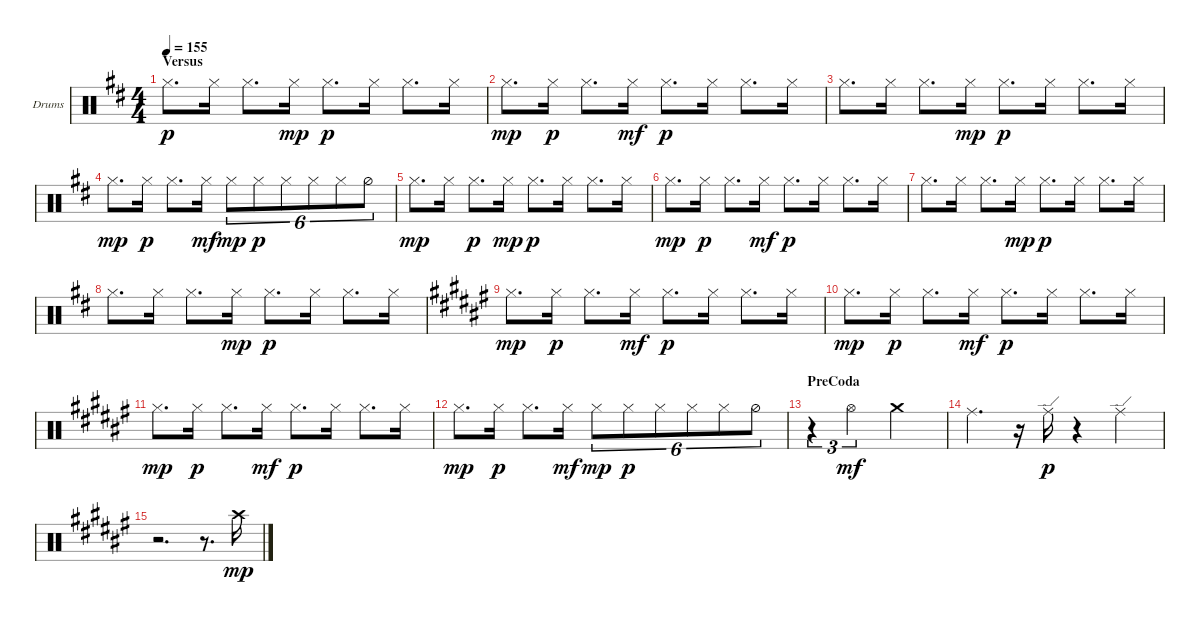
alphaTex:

\bracketExtendMode groupsimilarinstruments
\firstSystemTrackNameOrientation horizontal
\otherSystemsTrackNameOrientation horizontal
\track ("Perc" "Drums") {instrument percussion}
\staff {score}
\articulation defaults
\ts (4 4)
\section ("" "Versus")
\tempo 155
\clef neutral
\ks d "Hi-Hat (closed)".8{d dy p} "Hi-Hat (closed)".16 "Hi-Hat (closed)".8{d} "Hi-Hat (closed)".16{dy mp} "Hi-Hat (closed)".8{d dy p} "Hi-Hat (closed)".16 "Hi-Hat (closed)".8{d} "Hi-Hat (closed)".16
|
"Hi-Hat (closed)".8{d dy mp} "Hi-Hat (closed)".16{dy p} "Hi-Hat (closed)".8{d} "Hi-Hat (closed)".16{dy mf} "Hi-Hat (closed)".8{d dy p} "Hi-Hat (closed)".16 "Hi-Hat (closed)".8{d} "Hi-Hat (closed)".16 |
"Hi-Hat (closed)".8{d} "Hi-Hat (closed)".16 "Hi-Hat (closed)".8{d} "Hi-Hat (closed)".16{dy mp} "Hi-Hat (closed)".8{d dy p} "Hi-Hat (closed)".16 "Hi-Hat (closed)".8{d} "Hi-Hat (closed)".16 |
"Hi-Hat (closed)".8{d dy mp} "Hi-Hat (closed)".16{dy p} "Hi-Hat (closed)".8{d} "Hi-Hat (closed)".16{dy mf} "Hi-Hat (closed)".8{tu (6 4) dy mp} "Hi-Hat (closed)".8{tu (6 4) dy p} "Hi-Hat (closed)".8{tu (6 4)} "Hi-Hat (closed)".8{tu (6 4)} "Hi-Hat (closed)".8{tu (6 4)} "Hi-Hat (half)".8{tu (6 4)} |
"Hi-Hat (closed)".8{d dy mp} "Hi-Hat (closed)".16 "Hi-Hat (closed)".8{d dy p} "Hi-Hat (closed)".16{dy mp} "Hi-Hat (closed)".8{d dy p} "Hi-Hat (closed)".16 "Hi-Hat (closed)".8{d} "Hi-Hat (closed)".16 |
"Hi-Hat (closed)".8{d dy mp} "Hi-Hat (closed)".16{dy p} "Hi-Hat (closed)".8{d} "Hi-Hat (closed)".16{dy mf} "Hi-Hat (closed)".8{d dy p} "Hi-Hat (closed)".16 "Hi-Hat (closed)".8{d} "Hi-Hat (closed)".16 |
"Hi-Hat (closed)".8{d} "Hi-Hat (closed)".16 "Hi-Hat (closed)".8{d} "Hi-Hat (closed)".16{dy mp} "Hi-Hat (closed)".8{d dy p} "Hi-Hat (closed)".16 "Hi-Hat (closed)".8{d} "Hi-Hat (closed)".16 |
"Hi-Hat (closed)".8{d} "Hi-Hat (closed)".16 "Hi-Hat (closed)".8{d} "Hi-Hat (closed)".16{dy mp} "Hi-Hat (closed)".8{d dy p} "Hi-Hat (closed)".16 "Hi-Hat (closed)".8{d} "Hi-Hat (closed)".16 |
\ks f# "Hi-Hat (closed)".8{d dy mp} "Hi-Hat (closed)".16{dy p} "Hi-Hat (closed)".8{d} "Hi-Hat (closed)".16{dy mf} "Hi-Hat (closed)".8{d dy p} "Hi-Hat (closed)".16 "Hi-Hat (closed)".8{d} "Hi-Hat (closed)".16
|
"Hi-Hat (closed)".8{d dy mp} "Hi-Hat (closed)".16{dy p} "Hi-Hat (closed)".8{d} "Hi-Hat (closed)".16{dy mf} "Hi-Hat (closed)".8{d dy p} "Hi-Hat (closed)".16 "Hi-Hat (closed)".8{d} "Hi-Hat (closed)".16 |
"Hi-Hat (closed)".8{d dy mp} "Hi-Hat (closed)".16{dy p} "Hi-Hat (closed)".8{d} "Hi-Hat (closed)".16{dy mf} "Hi-Hat (closed)".8{d dy p} "Hi-Hat (closed)".16 "Hi-Hat (closed)".8{d} "Hi-Hat (closed)".16 |
"Hi-Hat (closed)".8{d dy mp} "Hi-Hat (closed)".16{dy p} "Hi-Hat (closed)".8{d} "Hi-Hat (closed)".16{dy mf} "Hi-Hat (closed)".8{tu (6 4) dy mp} "Hi-Hat (closed)".8{tu (6 4) dy p} "Hi-Hat (closed)".8{tu (6 4)} "Hi-Hat (closed)".8{tu (6 4)} "Hi-Hat (closed)".8{tu (6 4)} "Hi-Hat (half)".8{tu (6 4)} |
\section ("" "PreCoda")
r.4{tu (3 2)} "Hi-Hat (open)".2{tu (3 2) dy mf} "Crash medium (hit)".2 |
"Ride (middle)".4{d} r.16 "Ride (edge)".16{dy p} r.4 "Ride (edge)".4 |
r.2{d} r.8{d} "Crash high (hit)".16{dy mp}
